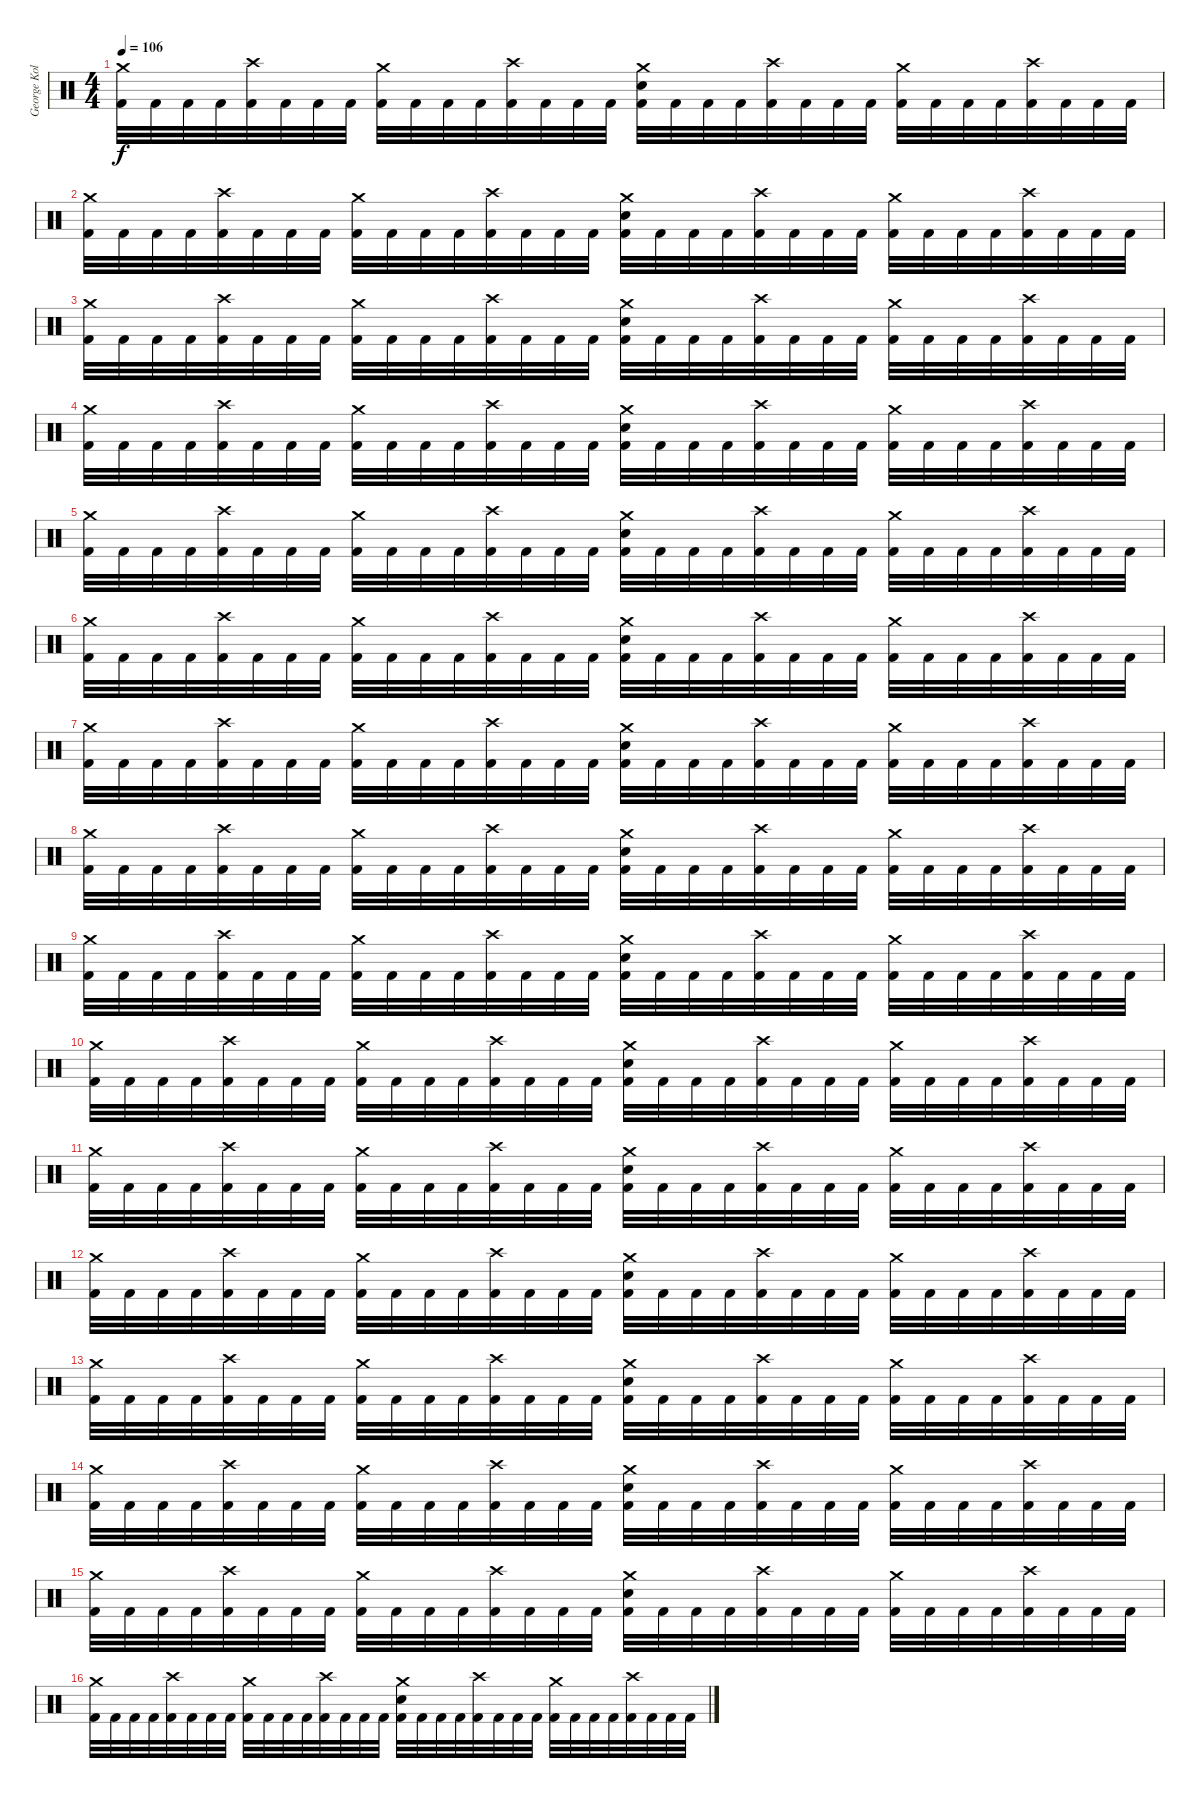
\track ("George Kollias" "George Kol") {instrument percussion}
\staff {score}
\articulation defaults
\ts (4 4)
\tempo 106
\clef neutral
\ks c
("Crash medium (hit)" "Kick (hit) 2").32{dy f} "Kick (hit) 2".32 "Kick (hit) 2".32 "Kick (hit) 2".32 ("Crash high (hit)" "Kick (hit) 2").32 "Kick (hit) 2".32 "Kick (hit) 2".32 "Kick (hit) 2".32 ("Crash medium (hit)" "Kick (hit) 2").32 "Kick (hit) 2".32 "Kick (hit) 2".32 "Kick (hit) 2".32 ("Crash high (hit)" "Kick (hit) 2").32 "Kick (hit) 2".32 "Kick (hit) 2".32 "Kick (hit) 2".32 ("Crash medium (hit)" "Electric Snare (hit)" "Kick (hit) 2").32 "Kick (hit) 2".32 "Kick (hit) 2".32 "Kick (hit) 2".32 ("Crash high (hit)" "Kick (hit) 2").32 "Kick (hit) 2".32 "Kick (hit) 2".32 "Kick (hit) 2".32 ("Crash medium (hit)" "Kick (hit) 2").32 "Kick (hit) 2".32 "Kick (hit) 2".32 "Kick (hit) 2".32 ("Crash high (hit)" "Kick (hit) 2").32 "Kick (hit) 2".32 "Kick (hit) 2".32 "Kick (hit) 2".32 |
("Crash medium (hit)" "Kick (hit) 2").32 "Kick (hit) 2".32 "Kick (hit) 2".32 "Kick (hit) 2".32 ("Crash high (hit)" "Kick (hit) 2").32 "Kick (hit) 2".32 "Kick (hit) 2".32 "Kick (hit) 2".32 ("Crash medium (hit)" "Kick (hit) 2").32 "Kick (hit) 2".32 "Kick (hit) 2".32 "Kick (hit) 2".32 ("Crash high (hit)" "Kick (hit) 2").32 "Kick (hit) 2".32 "Kick (hit) 2".32 "Kick (hit) 2".32 ("Crash medium (hit)" "Electric Snare (hit)" "Kick (hit) 2").32 "Kick (hit) 2".32 "Kick (hit) 2".32 "Kick (hit) 2".32 ("Crash high (hit)" "Kick (hit) 2").32 "Kick (hit) 2".32 "Kick (hit) 2".32 "Kick (hit) 2".32 ("Crash medium (hit)" "Kick (hit) 2").32 "Kick (hit) 2".32 "Kick (hit) 2".32 "Kick (hit) 2".32 ("Crash high (hit)" "Kick (hit) 2").32 "Kick (hit) 2".32 "Kick (hit) 2".32 "Kick (hit) 2".32 |
("Crash medium (hit)" "Kick (hit) 2").32 "Kick (hit) 2".32 "Kick (hit) 2".32 "Kick (hit) 2".32 ("Crash high (hit)" "Kick (hit) 2").32 "Kick (hit) 2".32 "Kick (hit) 2".32 "Kick (hit) 2".32 ("Crash medium (hit)" "Kick (hit) 2").32 "Kick (hit) 2".32 "Kick (hit) 2".32 "Kick (hit) 2".32 ("Crash high (hit)" "Kick (hit) 2").32 "Kick (hit) 2".32 "Kick (hit) 2".32 "Kick (hit) 2".32 ("Crash medium (hit)" "Electric Snare (hit)" "Kick (hit) 2").32 "Kick (hit) 2".32 "Kick (hit) 2".32 "Kick (hit) 2".32 ("Crash high (hit)" "Kick (hit) 2").32 "Kick (hit) 2".32 "Kick (hit) 2".32 "Kick (hit) 2".32 ("Crash medium (hit)" "Kick (hit) 2").32 "Kick (hit) 2".32 "Kick (hit) 2".32 "Kick (hit) 2".32 ("Crash high (hit)" "Kick (hit) 2").32 "Kick (hit) 2".32 "Kick (hit) 2".32 "Kick (hit) 2".32 |
("Crash medium (hit)" "Kick (hit) 2").32 "Kick (hit) 2".32 "Kick (hit) 2".32 "Kick (hit) 2".32 ("Crash high (hit)" "Kick (hit) 2").32 "Kick (hit) 2".32 "Kick (hit) 2".32 "Kick (hit) 2".32 ("Crash medium (hit)" "Kick (hit) 2").32 "Kick (hit) 2".32 "Kick (hit) 2".32 "Kick (hit) 2".32 ("Crash high (hit)" "Kick (hit) 2").32 "Kick (hit) 2".32 "Kick (hit) 2".32 "Kick (hit) 2".32 ("Crash medium (hit)" "Electric Snare (hit)" "Kick (hit) 2").32 "Kick (hit) 2".32 "Kick (hit) 2".32 "Kick (hit) 2".32 ("Crash high (hit)" "Kick (hit) 2").32 "Kick (hit) 2".32 "Kick (hit) 2".32 "Kick (hit) 2".32 ("Crash medium (hit)" "Kick (hit) 2").32 "Kick (hit) 2".32 "Kick (hit) 2".32 "Kick (hit) 2".32 ("Crash high (hit)" "Kick (hit) 2").32 "Kick (hit) 2".32 "Kick (hit) 2".32 "Kick (hit) 2".32 |
("Crash medium (hit)" "Kick (hit) 2").32 "Kick (hit) 2".32 "Kick (hit) 2".32 "Kick (hit) 2".32 ("Crash high (hit)" "Kick (hit) 2").32 "Kick (hit) 2".32 "Kick (hit) 2".32 "Kick (hit) 2".32 ("Crash medium (hit)" "Kick (hit) 2").32 "Kick (hit) 2".32 "Kick (hit) 2".32 "Kick (hit) 2".32 ("Crash high (hit)" "Kick (hit) 2").32 "Kick (hit) 2".32 "Kick (hit) 2".32 "Kick (hit) 2".32 ("Crash medium (hit)" "Electric Snare (hit)" "Kick (hit) 2").32 "Kick (hit) 2".32 "Kick (hit) 2".32 "Kick (hit) 2".32 ("Crash high (hit)" "Kick (hit) 2").32 "Kick (hit) 2".32 "Kick (hit) 2".32 "Kick (hit) 2".32 ("Crash medium (hit)" "Kick (hit) 2").32 "Kick (hit) 2".32 "Kick (hit) 2".32 "Kick (hit) 2".32 ("Crash high (hit)" "Kick (hit) 2").32 "Kick (hit) 2".32 "Kick (hit) 2".32 "Kick (hit) 2".32 |
("Crash medium (hit)" "Kick (hit) 2").32 "Kick (hit) 2".32 "Kick (hit) 2".32 "Kick (hit) 2".32 ("Crash high (hit)" "Kick (hit) 2").32 "Kick (hit) 2".32 "Kick (hit) 2".32 "Kick (hit) 2".32 ("Crash medium (hit)" "Kick (hit) 2").32 "Kick (hit) 2".32 "Kick (hit) 2".32 "Kick (hit) 2".32 ("Crash high (hit)" "Kick (hit) 2").32 "Kick (hit) 2".32 "Kick (hit) 2".32 "Kick (hit) 2".32 ("Crash medium (hit)" "Electric Snare (hit)" "Kick (hit) 2").32 "Kick (hit) 2".32 "Kick (hit) 2".32 "Kick (hit) 2".32 ("Crash high (hit)" "Kick (hit) 2").32 "Kick (hit) 2".32 "Kick (hit) 2".32 "Kick (hit) 2".32 ("Crash medium (hit)" "Kick (hit) 2").32 "Kick (hit) 2".32 "Kick (hit) 2".32 "Kick (hit) 2".32 ("Crash high (hit)" "Kick (hit) 2").32 "Kick (hit) 2".32 "Kick (hit) 2".32 "Kick (hit) 2".32 |
("Crash medium (hit)" "Kick (hit) 2").32 "Kick (hit) 2".32 "Kick (hit) 2".32 "Kick (hit) 2".32 ("Crash high (hit)" "Kick (hit) 2").32 "Kick (hit) 2".32 "Kick (hit) 2".32 "Kick (hit) 2".32 ("Crash medium (hit)" "Kick (hit) 2").32 "Kick (hit) 2".32 "Kick (hit) 2".32 "Kick (hit) 2".32 ("Crash high (hit)" "Kick (hit) 2").32 "Kick (hit) 2".32 "Kick (hit) 2".32 "Kick (hit) 2".32 ("Crash medium (hit)" "Electric Snare (hit)" "Kick (hit) 2").32 "Kick (hit) 2".32 "Kick (hit) 2".32 "Kick (hit) 2".32 ("Crash high (hit)" "Kick (hit) 2").32 "Kick (hit) 2".32 "Kick (hit) 2".32 "Kick (hit) 2".32 ("Crash medium (hit)" "Kick (hit) 2").32 "Kick (hit) 2".32 "Kick (hit) 2".32 "Kick (hit) 2".32 ("Crash high (hit)" "Kick (hit) 2").32 "Kick (hit) 2".32 "Kick (hit) 2".32 "Kick (hit) 2".32 |
("Crash medium (hit)" "Kick (hit) 2").32 "Kick (hit) 2".32 "Kick (hit) 2".32 "Kick (hit) 2".32 ("Crash high (hit)" "Kick (hit) 2").32 "Kick (hit) 2".32 "Kick (hit) 2".32 "Kick (hit) 2".32 ("Crash medium (hit)" "Kick (hit) 2").32 "Kick (hit) 2".32 "Kick (hit) 2".32 "Kick (hit) 2".32 ("Crash high (hit)" "Kick (hit) 2").32 "Kick (hit) 2".32 "Kick (hit) 2".32 "Kick (hit) 2".32 ("Crash medium (hit)" "Electric Snare (hit)" "Kick (hit) 2").32 "Kick (hit) 2".32 "Kick (hit) 2".32 "Kick (hit) 2".32 ("Crash high (hit)" "Kick (hit) 2").32 "Kick (hit) 2".32 "Kick (hit) 2".32 "Kick (hit) 2".32 ("Crash medium (hit)" "Kick (hit) 2").32 "Kick (hit) 2".32 "Kick (hit) 2".32 "Kick (hit) 2".32 ("Crash high (hit)" "Kick (hit) 2").32 "Kick (hit) 2".32 "Kick (hit) 2".32 "Kick (hit) 2".32 |
("Crash medium (hit)" "Kick (hit) 2").32 "Kick (hit) 2".32 "Kick (hit) 2".32 "Kick (hit) 2".32 ("Crash high (hit)" "Kick (hit) 2").32 "Kick (hit) 2".32 "Kick (hit) 2".32 "Kick (hit) 2".32 ("Crash medium (hit)" "Kick (hit) 2").32 "Kick (hit) 2".32 "Kick (hit) 2".32 "Kick (hit) 2".32 ("Crash high (hit)" "Kick (hit) 2").32 "Kick (hit) 2".32 "Kick (hit) 2".32 "Kick (hit) 2".32 ("Crash medium (hit)" "Electric Snare (hit)" "Kick (hit) 2").32 "Kick (hit) 2".32 "Kick (hit) 2".32 "Kick (hit) 2".32 ("Crash high (hit)" "Kick (hit) 2").32 "Kick (hit) 2".32 "Kick (hit) 2".32 "Kick (hit) 2".32 ("Crash medium (hit)" "Kick (hit) 2").32 "Kick (hit) 2".32 "Kick (hit) 2".32 "Kick (hit) 2".32 ("Crash high (hit)" "Kick (hit) 2").32 "Kick (hit) 2".32 "Kick (hit) 2".32 "Kick (hit) 2".32 |
("Crash medium (hit)" "Kick (hit) 2").32 "Kick (hit) 2".32 "Kick (hit) 2".32 "Kick (hit) 2".32 ("Crash high (hit)" "Kick (hit) 2").32 "Kick (hit) 2".32 "Kick (hit) 2".32 "Kick (hit) 2".32 ("Crash medium (hit)" "Kick (hit) 2").32 "Kick (hit) 2".32 "Kick (hit) 2".32 "Kick (hit) 2".32 ("Crash high (hit)" "Kick (hit) 2").32 "Kick (hit) 2".32 "Kick (hit) 2".32 "Kick (hit) 2".32 ("Crash medium (hit)" "Electric Snare (hit)" "Kick (hit) 2").32 "Kick (hit) 2".32 "Kick (hit) 2".32 "Kick (hit) 2".32 ("Crash high (hit)" "Kick (hit) 2").32 "Kick (hit) 2".32 "Kick (hit) 2".32 "Kick (hit) 2".32 ("Crash medium (hit)" "Kick (hit) 2").32 "Kick (hit) 2".32 "Kick (hit) 2".32 "Kick (hit) 2".32 ("Crash high (hit)" "Kick (hit) 2").32 "Kick (hit) 2".32 "Kick (hit) 2".32 "Kick (hit) 2".32 |
("Crash medium (hit)" "Kick (hit) 2").32 "Kick (hit) 2".32 "Kick (hit) 2".32 "Kick (hit) 2".32 ("Crash high (hit)" "Kick (hit) 2").32 "Kick (hit) 2".32 "Kick (hit) 2".32 "Kick (hit) 2".32 ("Crash medium (hit)" "Kick (hit) 2").32 "Kick (hit) 2".32 "Kick (hit) 2".32 "Kick (hit) 2".32 ("Crash high (hit)" "Kick (hit) 2").32 "Kick (hit) 2".32 "Kick (hit) 2".32 "Kick (hit) 2".32 ("Crash medium (hit)" "Electric Snare (hit)" "Kick (hit) 2").32 "Kick (hit) 2".32 "Kick (hit) 2".32 "Kick (hit) 2".32 ("Crash high (hit)" "Kick (hit) 2").32 "Kick (hit) 2".32 "Kick (hit) 2".32 "Kick (hit) 2".32 ("Crash medium (hit)" "Kick (hit) 2").32 "Kick (hit) 2".32 "Kick (hit) 2".32 "Kick (hit) 2".32 ("Crash high (hit)" "Kick (hit) 2").32 "Kick (hit) 2".32 "Kick (hit) 2".32 "Kick (hit) 2".32 |
("Crash medium (hit)" "Kick (hit) 2").32 "Kick (hit) 2".32 "Kick (hit) 2".32 "Kick (hit) 2".32 ("Crash high (hit)" "Kick (hit) 2").32 "Kick (hit) 2".32 "Kick (hit) 2".32 "Kick (hit) 2".32 ("Crash medium (hit)" "Kick (hit) 2").32 "Kick (hit) 2".32 "Kick (hit) 2".32 "Kick (hit) 2".32 ("Crash high (hit)" "Kick (hit) 2").32 "Kick (hit) 2".32 "Kick (hit) 2".32 "Kick (hit) 2".32 ("Crash medium (hit)" "Electric Snare (hit)" "Kick (hit) 2").32 "Kick (hit) 2".32 "Kick (hit) 2".32 "Kick (hit) 2".32 ("Crash high (hit)" "Kick (hit) 2").32 "Kick (hit) 2".32 "Kick (hit) 2".32 "Kick (hit) 2".32 ("Crash medium (hit)" "Kick (hit) 2").32 "Kick (hit) 2".32 "Kick (hit) 2".32 "Kick (hit) 2".32 ("Crash high (hit)" "Kick (hit) 2").32 "Kick (hit) 2".32 "Kick (hit) 2".32 "Kick (hit) 2".32 |
("Crash medium (hit)" "Kick (hit) 2").32 "Kick (hit) 2".32 "Kick (hit) 2".32 "Kick (hit) 2".32 ("Crash high (hit)" "Kick (hit) 2").32 "Kick (hit) 2".32 "Kick (hit) 2".32 "Kick (hit) 2".32 ("Crash medium (hit)" "Kick (hit) 2").32 "Kick (hit) 2".32 "Kick (hit) 2".32 "Kick (hit) 2".32 ("Crash high (hit)" "Kick (hit) 2").32 "Kick (hit) 2".32 "Kick (hit) 2".32 "Kick (hit) 2".32 ("Crash medium (hit)" "Electric Snare (hit)" "Kick (hit) 2").32 "Kick (hit) 2".32 "Kick (hit) 2".32 "Kick (hit) 2".32 ("Crash high (hit)" "Kick (hit) 2").32 "Kick (hit) 2".32 "Kick (hit) 2".32 "Kick (hit) 2".32 ("Crash medium (hit)" "Kick (hit) 2").32 "Kick (hit) 2".32 "Kick (hit) 2".32 "Kick (hit) 2".32 ("Crash high (hit)" "Kick (hit) 2").32 "Kick (hit) 2".32 "Kick (hit) 2".32 "Kick (hit) 2".32 |
("Crash medium (hit)" "Kick (hit) 2").32 "Kick (hit) 2".32 "Kick (hit) 2".32 "Kick (hit) 2".32 ("Crash high (hit)" "Kick (hit) 2").32 "Kick (hit) 2".32 "Kick (hit) 2".32 "Kick (hit) 2".32 ("Crash medium (hit)" "Kick (hit) 2").32 "Kick (hit) 2".32 "Kick (hit) 2".32 "Kick (hit) 2".32 ("Crash high (hit)" "Kick (hit) 2").32 "Kick (hit) 2".32 "Kick (hit) 2".32 "Kick (hit) 2".32 ("Crash medium (hit)" "Electric Snare (hit)" "Kick (hit) 2").32 "Kick (hit) 2".32 "Kick (hit) 2".32 "Kick (hit) 2".32 ("Crash high (hit)" "Kick (hit) 2").32 "Kick (hit) 2".32 "Kick (hit) 2".32 "Kick (hit) 2".32 ("Crash medium (hit)" "Kick (hit) 2").32 "Kick (hit) 2".32 "Kick (hit) 2".32 "Kick (hit) 2".32 ("Crash high (hit)" "Kick (hit) 2").32 "Kick (hit) 2".32 "Kick (hit) 2".32 "Kick (hit) 2".32 |
("Crash medium (hit)" "Kick (hit) 2").32 "Kick (hit) 2".32 "Kick (hit) 2".32 "Kick (hit) 2".32 ("Crash high (hit)" "Kick (hit) 2").32 "Kick (hit) 2".32 "Kick (hit) 2".32 "Kick (hit) 2".32 ("Crash medium (hit)" "Kick (hit) 2").32 "Kick (hit) 2".32 "Kick (hit) 2".32 "Kick (hit) 2".32 ("Crash high (hit)" "Kick (hit) 2").32 "Kick (hit) 2".32 "Kick (hit) 2".32 "Kick (hit) 2".32 ("Crash medium (hit)" "Electric Snare (hit)" "Kick (hit) 2").32 "Kick (hit) 2".32 "Kick (hit) 2".32 "Kick (hit) 2".32 ("Crash high (hit)" "Kick (hit) 2").32 "Kick (hit) 2".32 "Kick (hit) 2".32 "Kick (hit) 2".32 ("Crash medium (hit)" "Kick (hit) 2").32 "Kick (hit) 2".32 "Kick (hit) 2".32 "Kick (hit) 2".32 ("Crash high (hit)" "Kick (hit) 2").32 "Kick (hit) 2".32 "Kick (hit) 2".32 "Kick (hit) 2".32 |
("Crash medium (hit)" "Kick (hit) 2").32 "Kick (hit) 2".32 "Kick (hit) 2".32 "Kick (hit) 2".32 ("Crash high (hit)" "Kick (hit) 2").32 "Kick (hit) 2".32 "Kick (hit) 2".32 "Kick (hit) 2".32 ("Crash medium (hit)" "Kick (hit) 2").32 "Kick (hit) 2".32 "Kick (hit) 2".32 "Kick (hit) 2".32 ("Crash high (hit)" "Kick (hit) 2").32 "Kick (hit) 2".32 "Kick (hit) 2".32 "Kick (hit) 2".32 ("Crash medium (hit)" "Electric Snare (hit)" "Kick (hit) 2").32 "Kick (hit) 2".32 "Kick (hit) 2".32 "Kick (hit) 2".32 ("Crash high (hit)" "Kick (hit) 2").32 "Kick (hit) 2".32 "Kick (hit) 2".32 "Kick (hit) 2".32 ("Crash medium (hit)" "Kick (hit) 2").32 "Kick (hit) 2".32 "Kick (hit) 2".32 "Kick (hit) 2".32 ("Crash high (hit)" "Kick (hit) 2").32 "Kick (hit) 2".32 "Kick (hit) 2".32 "Kick (hit) 2".32
